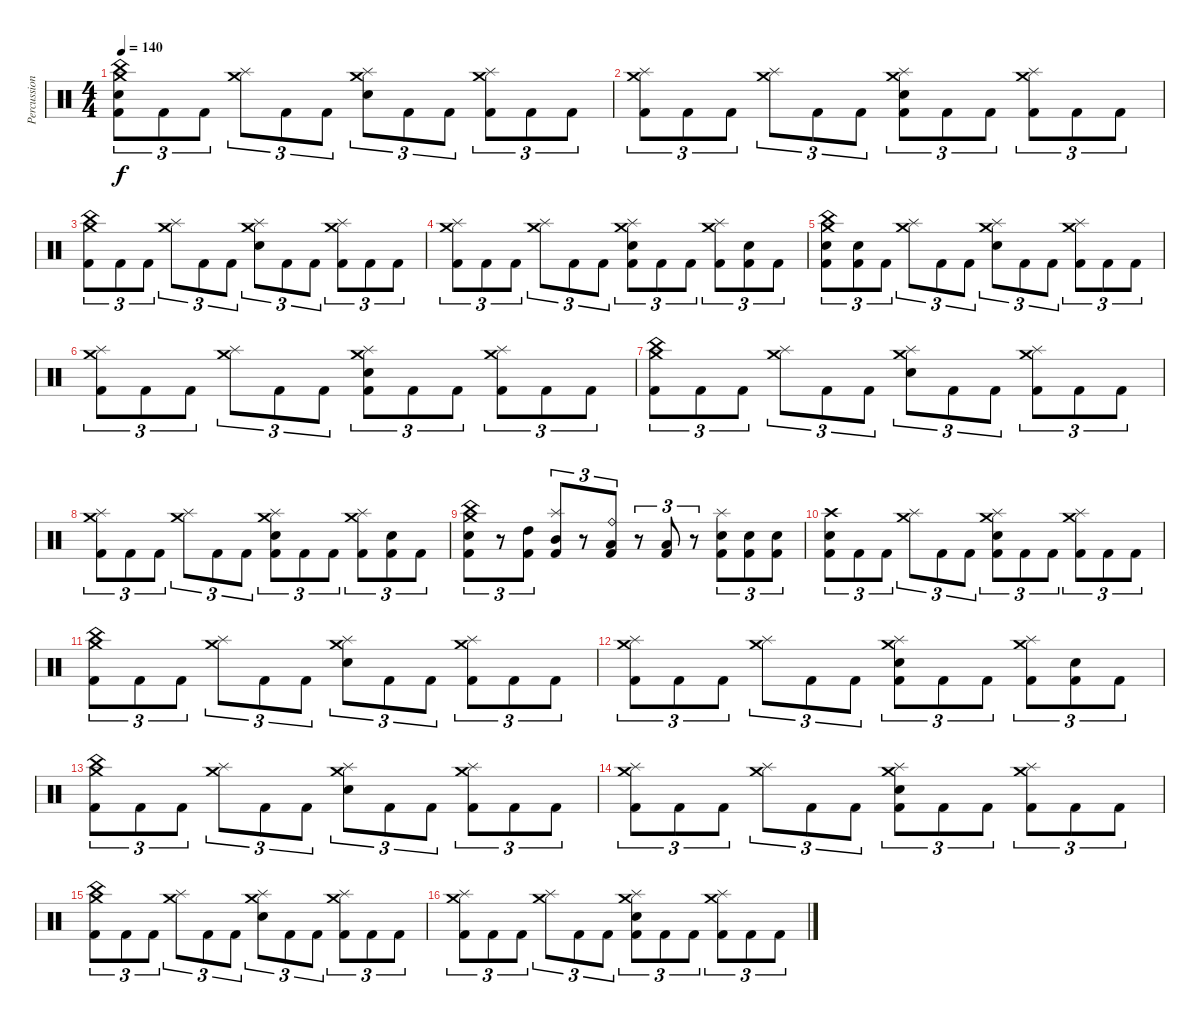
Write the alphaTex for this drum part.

\track ("Percussion" "Percussion") {instrument percussion}
\staff {score}
\articulation defaults
\ts (4 4)
\tempo 140
\clef neutral
\ks c
("China (hit)" "Crash medium (hit)" "Snare (hit) 2" "Kick (hit) 2").8{tu (3 2) dy f} "Kick (hit) 2".8{tu (3 2)} "Kick (hit) 2".8{tu (3 2)} ("Splash (hit)" "Crash medium (hit)").8{tu (3 2)} "Kick (hit) 2".8{tu (3 2)} "Kick (hit) 2".8{tu (3 2)} ("Splash (hit)" "Crash medium (hit)" "Snare (hit) 2").8{tu (3 2)} "Kick (hit) 2".8{tu (3 2)} "Kick (hit) 2".8{tu (3 2)} ("Splash (hit)" "Crash medium (hit)" "Kick (hit) 2").8{tu (3 2)} "Kick (hit) 2".8{tu (3 2)} "Kick (hit) 2".8{tu (3 2)} |
("Splash (hit)" "Crash medium (hit)" "Kick (hit) 2").8{tu (3 2)} "Kick (hit) 2".8{tu (3 2)} "Kick (hit) 2".8{tu (3 2)} ("Splash (hit)" "Crash medium (hit)").8{tu (3 2)} "Kick (hit) 2".8{tu (3 2)} "Kick (hit) 2".8{tu (3 2)} ("Splash (hit)" "Crash medium (hit)" "Snare (hit) 2" "Kick (hit) 2").8{tu (3 2)} "Kick (hit) 2".8{tu (3 2)} "Kick (hit) 2".8{tu (3 2)} ("Splash (hit)" "Crash medium (hit)" "Kick (hit) 2").8{tu (3 2)} "Kick (hit) 2".8{tu (3 2)} "Kick (hit) 2".8{tu (3 2)} |
("China (hit)" "Crash medium (hit)" "Kick (hit) 2").8{tu (3 2)} "Kick (hit) 2".8{tu (3 2)} "Kick (hit) 2".8{tu (3 2)} ("Splash (hit)" "Crash medium (hit)").8{tu (3 2)} "Kick (hit) 2".8{tu (3 2)} "Kick (hit) 2".8{tu (3 2)} ("Splash (hit)" "Crash medium (hit)" "Snare (hit) 2").8{tu (3 2)} "Kick (hit) 2".8{tu (3 2)} "Kick (hit) 2".8{tu (3 2)} ("Splash (hit)" "Crash medium (hit)" "Kick (hit) 2").8{tu (3 2)} "Kick (hit) 2".8{tu (3 2)} "Kick (hit) 2".8{tu (3 2)} |
("Splash (hit)" "Crash medium (hit)" "Kick (hit) 2").8{tu (3 2)} "Kick (hit) 2".8{tu (3 2)} "Kick (hit) 2".8{tu (3 2)} ("Splash (hit)" "Crash medium (hit)").8{tu (3 2)} "Kick (hit) 2".8{tu (3 2)} "Kick (hit) 2".8{tu (3 2)} ("Splash (hit)" "Crash medium (hit)" "Snare (hit) 2" "Kick (hit) 2").8{tu (3 2)} "Kick (hit) 2".8{tu (3 2)} "Kick (hit) 2".8{tu (3 2)} ("Splash (hit)" "Crash medium (hit)" "Kick (hit) 2").8{tu (3 2)} ("Snare (hit) 2" "Kick (hit) 2").8{tu (3 2)} "Kick (hit) 2".8{tu (3 2)} |
("China (hit)" "Crash medium (hit)" "Snare (hit) 2" "Kick (hit) 2").8{tu (3 2)} ("Snare (hit) 2" "Kick (hit) 2").8{tu (3 2)} "Kick (hit) 2".8{tu (3 2)} ("Splash (hit)" "Crash medium (hit)").8{tu (3 2)} "Kick (hit) 2".8{tu (3 2)} "Kick (hit) 2".8{tu (3 2)} ("Splash (hit)" "Crash medium (hit)" "Snare (hit) 2").8{tu (3 2)} "Kick (hit) 2".8{tu (3 2)} "Kick (hit) 2".8{tu (3 2)} ("Splash (hit)" "Crash medium (hit)" "Kick (hit) 2").8{tu (3 2)} "Kick (hit) 2".8{tu (3 2)} "Kick (hit) 2".8{tu (3 2)} |
("Splash (hit)" "Crash medium (hit)" "Kick (hit) 2").8{tu (3 2)} "Kick (hit) 2".8{tu (3 2)} "Kick (hit) 2".8{tu (3 2)} ("Splash (hit)" "Crash medium (hit)").8{tu (3 2)} "Kick (hit) 2".8{tu (3 2)} "Kick (hit) 2".8{tu (3 2)} ("Splash (hit)" "Crash medium (hit)" "Snare (hit) 2" "Kick (hit) 2").8{tu (3 2)} "Kick (hit) 2".8{tu (3 2)} "Kick (hit) 2".8{tu (3 2)} ("Splash (hit)" "Crash medium (hit)" "Kick (hit) 2").8{tu (3 2)} "Kick (hit) 2".8{tu (3 2)} "Kick (hit) 2".8{tu (3 2)} |
("China (hit)" "Crash medium (hit)" "Kick (hit) 2").8{tu (3 2)} "Kick (hit) 2".8{tu (3 2)} "Kick (hit) 2".8{tu (3 2)} ("Splash (hit)" "Crash medium (hit)").8{tu (3 2)} "Kick (hit) 2".8{tu (3 2)} "Kick (hit) 2".8{tu (3 2)} ("Splash (hit)" "Crash medium (hit)" "Snare (hit) 2").8{tu (3 2)} "Kick (hit) 2".8{tu (3 2)} "Kick (hit) 2".8{tu (3 2)} ("Splash (hit)" "Crash medium (hit)" "Kick (hit) 2").8{tu (3 2)} "Kick (hit) 2".8{tu (3 2)} "Kick (hit) 2".8{tu (3 2)} |
("Splash (hit)" "Crash medium (hit)" "Kick (hit) 2").8{tu (3 2)} "Kick (hit) 2".8{tu (3 2)} "Kick (hit) 2".8{tu (3 2)} ("Splash (hit)" "Crash medium (hit)").8{tu (3 2)} "Kick (hit) 2".8{tu (3 2)} "Kick (hit) 2".8{tu (3 2)} ("Splash (hit)" "Crash medium (hit)" "Snare (hit) 2" "Kick (hit) 2").8{tu (3 2)} "Kick (hit) 2".8{tu (3 2)} "Kick (hit) 2".8{tu (3 2)} ("Splash (hit)" "Crash medium (hit)" "Kick (hit) 2").8{tu (3 2)} ("Snare (hit) 2" "Kick (hit) 2").8{tu (3 2)} "Kick (hit) 2".8{tu (3 2)} |
("China (hit)" "Crash medium (hit)" "Snare (hit) 2" "Kick (hit) 2").8{tu (3 2)} r.8{tu (3 2)} ("High Tom (hit)" "Kick (hit) 2").8{tu (3 2)} ("Splash (hit)" "Mid Tom (hit)" "Kick (hit) 2").8{tu (3 2)} r.8{tu (3 2)} ("Ride (bell)" "Low Tom (hit)" "Kick (hit) 2").8{tu (3 2)} r.8{tu (3 2)} ("Low Floor Tom (hit)" "Kick (hit) 2").8{tu (3 2)} r.8{tu (3 2)} ("Splash (hit)" "Snare (hit) 2" "Kick (hit) 2").8{tu (3 2)} ("Electric Snare (hit)" "Kick (hit) 2").8{tu (3 2)} ("Snare (hit) 2" "Kick (hit) 2").8{tu (3 2)} |
("Crash high (hit)" "Snare (hit) 2" "Kick (hit) 2").8{tu (3 2)} "Kick (hit) 2".8{tu (3 2)} "Kick (hit) 2".8{tu (3 2)} ("Splash (hit)" "Crash medium (hit)").8{tu (3 2)} "Kick (hit) 2".8{tu (3 2)} "Kick (hit) 2".8{tu (3 2)} ("Splash (hit)" "Crash medium (hit)" "Snare (hit) 2" "Kick (hit) 2").8{tu (3 2)} "Kick (hit) 2".8{tu (3 2)} "Kick (hit) 2".8{tu (3 2)} ("Splash (hit)" "Crash medium (hit)" "Kick (hit) 2").8{tu (3 2)} "Kick (hit) 2".8{tu (3 2)} "Kick (hit) 2".8{tu (3 2)} |
("China (hit)" "Crash medium (hit)" "Kick (hit) 2").8{tu (3 2)} "Kick (hit) 2".8{tu (3 2)} "Kick (hit) 2".8{tu (3 2)} ("Splash (hit)" "Crash medium (hit)").8{tu (3 2)} "Kick (hit) 2".8{tu (3 2)} "Kick (hit) 2".8{tu (3 2)} ("Splash (hit)" "Crash medium (hit)" "Snare (hit) 2").8{tu (3 2)} "Kick (hit) 2".8{tu (3 2)} "Kick (hit) 2".8{tu (3 2)} ("Splash (hit)" "Crash medium (hit)" "Kick (hit) 2").8{tu (3 2)} "Kick (hit) 2".8{tu (3 2)} "Kick (hit) 2".8{tu (3 2)} |
("Splash (hit)" "Crash medium (hit)" "Kick (hit) 2").8{tu (3 2)} "Kick (hit) 2".8{tu (3 2)} "Kick (hit) 2".8{tu (3 2)} ("Splash (hit)" "Crash medium (hit)").8{tu (3 2)} "Kick (hit) 2".8{tu (3 2)} "Kick (hit) 2".8{tu (3 2)} ("Splash (hit)" "Crash medium (hit)" "Snare (hit) 2" "Kick (hit) 2").8{tu (3 2)} "Kick (hit) 2".8{tu (3 2)} "Kick (hit) 2".8{tu (3 2)} ("Splash (hit)" "Crash medium (hit)" "Kick (hit) 2").8{tu (3 2)} ("Snare (hit) 2" "Kick (hit) 2").8{tu (3 2)} "Kick (hit) 2".8{tu (3 2)} |
("China (hit)" "Crash medium (hit)" "Kick (hit) 2").8{tu (3 2)} "Kick (hit) 2".8{tu (3 2)} "Kick (hit) 2".8{tu (3 2)} ("Splash (hit)" "Crash medium (hit)").8{tu (3 2)} "Kick (hit) 2".8{tu (3 2)} "Kick (hit) 2".8{tu (3 2)} ("Splash (hit)" "Crash medium (hit)" "Snare (hit) 2").8{tu (3 2)} "Kick (hit) 2".8{tu (3 2)} "Kick (hit) 2".8{tu (3 2)} ("Splash (hit)" "Crash medium (hit)" "Kick (hit) 2").8{tu (3 2)} "Kick (hit) 2".8{tu (3 2)} "Kick (hit) 2".8{tu (3 2)} |
("Splash (hit)" "Crash medium (hit)" "Kick (hit) 2").8{tu (3 2)} "Kick (hit) 2".8{tu (3 2)} "Kick (hit) 2".8{tu (3 2)} ("Splash (hit)" "Crash medium (hit)").8{tu (3 2)} "Kick (hit) 2".8{tu (3 2)} "Kick (hit) 2".8{tu (3 2)} ("Splash (hit)" "Crash medium (hit)" "Snare (hit) 2" "Kick (hit) 2").8{tu (3 2)} "Kick (hit) 2".8{tu (3 2)} "Kick (hit) 2".8{tu (3 2)} ("Splash (hit)" "Crash medium (hit)" "Kick (hit) 2").8{tu (3 2)} "Kick (hit) 2".8{tu (3 2)} "Kick (hit) 2".8{tu (3 2)} |
("China (hit)" "Crash medium (hit)" "Kick (hit) 2").8{tu (3 2)} "Kick (hit) 2".8{tu (3 2)} "Kick (hit) 2".8{tu (3 2)} ("Splash (hit)" "Crash medium (hit)").8{tu (3 2)} "Kick (hit) 2".8{tu (3 2)} "Kick (hit) 2".8{tu (3 2)} ("Splash (hit)" "Crash medium (hit)" "Snare (hit) 2").8{tu (3 2)} "Kick (hit) 2".8{tu (3 2)} "Kick (hit) 2".8{tu (3 2)} ("Splash (hit)" "Crash medium (hit)" "Kick (hit) 2").8{tu (3 2)} "Kick (hit) 2".8{tu (3 2)} "Kick (hit) 2".8{tu (3 2)} |
("Splash (hit)" "Crash medium (hit)" "Kick (hit) 2").8{tu (3 2)} "Kick (hit) 2".8{tu (3 2)} "Kick (hit) 2".8{tu (3 2)} ("Splash (hit)" "Crash medium (hit)").8{tu (3 2)} "Kick (hit) 2".8{tu (3 2)} "Kick (hit) 2".8{tu (3 2)} ("Splash (hit)" "Crash medium (hit)" "Snare (hit) 2" "Kick (hit) 2").8{tu (3 2)} "Kick (hit) 2".8{tu (3 2)} "Kick (hit) 2".8{tu (3 2)} ("Splash (hit)" "Crash medium (hit)" "Kick (hit) 2").8{tu (3 2)} "Kick (hit) 2".8{tu (3 2)} "Kick (hit) 2".8{tu (3 2)}
